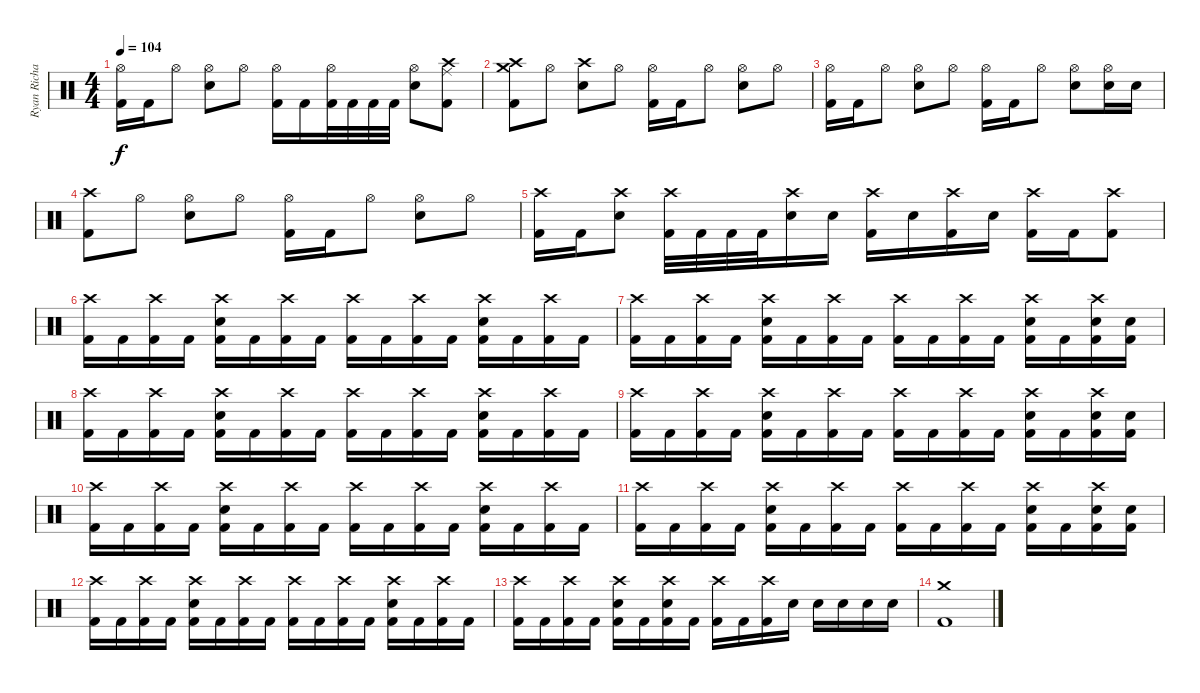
\track ("Ryan Richards" "Ryan Richa") {instrument percussion}
\staff {score}
\articulation defaults
\ts (4 4)
\tempo 104
\clef neutral
\ks c
("Hi-Hat (open)" "Kick (hit) 2").16{dy f} "Kick (hit) 2".16 "Hi-Hat (open)".8 ("Hi-Hat (open)" "Snare (hit) 2").8 "Hi-Hat (open)".8 ("Hi-Hat (open)" "Kick (hit) 2").16 "Kick (hit) 2".16 ("Hi-Hat (open)" "Kick (hit) 2").32 "Kick (hit) 2".32 "Kick (hit) 2".32 "Kick (hit) 2".32 ("Hi-Hat (open)" "Snare (hit) 2").8 ("Crash high (hit)" "Ride (middle)" "Kick (hit) 2").8 |
("Crash high (hit)" "Crash medium (hit)" "Kick (hit) 2").8 "Hi-Hat (open)".8 ("Crash high (hit)" "Snare (hit) 2").8 "Hi-Hat (open)".8 ("Hi-Hat (open)" "Kick (hit) 2").16 "Kick (hit) 2".16 "Hi-Hat (open)".8 ("Hi-Hat (open)" "Snare (hit) 2").8 "Hi-Hat (open)".8 |
("Hi-Hat (open)" "Kick (hit) 2").16 "Kick (hit) 2".16 "Hi-Hat (open)".8 ("Hi-Hat (open)" "Snare (hit) 2").8 "Hi-Hat (open)".8 ("Hi-Hat (open)" "Kick (hit) 2").16 "Kick (hit) 2".16 "Hi-Hat (open)".8 ("Hi-Hat (open)" "Snare (hit) 2").8 ("Hi-Hat (open)" "Snare (hit) 2").16 "Snare (hit) 2".16 |
("Crash high (hit)" "Kick (hit) 2").8 "Hi-Hat (open)".8 ("Hi-Hat (open)" "Snare (hit) 2").8 "Hi-Hat (open)".8 ("Hi-Hat (open)" "Kick (hit) 2").16 "Kick (hit) 2".16 "Hi-Hat (open)".8 ("Hi-Hat (open)" "Snare (hit) 2").8 "Hi-Hat (open)".8 |
("Crash high (hit)" "Kick (hit) 2").16 "Kick (hit) 2".16 ("Crash high (hit)" "Snare (hit) 2").8 ("Crash high (hit)" "Kick (hit) 2").32 "Kick (hit) 2".32 "Kick (hit) 2".32 "Kick (hit) 2".32 ("Crash high (hit)" "Snare (hit) 2").16 "Snare (hit) 2".16 ("Crash high (hit)" "Kick (hit) 2").16 "Snare (hit) 2".16 ("Crash high (hit)" "Kick (hit) 2").16 "Snare (hit) 2".16 ("Crash high (hit)" "Kick (hit) 2").16 "Kick (hit) 2".16 ("Crash high (hit)" "Kick (hit) 2").8 |
("Crash high (hit)" "Kick (hit) 2").16 "Kick (hit) 2".16 ("Crash high (hit)" "Kick (hit) 2").16 "Kick (hit) 2".16 ("Crash high (hit)" "Snare (hit) 2" "Kick (hit) 2").16 "Kick (hit) 2".16 ("Crash high (hit)" "Kick (hit) 2").16 "Kick (hit) 2".16 ("Crash high (hit)" "Kick (hit) 2").16 "Kick (hit) 2".16 ("Crash high (hit)" "Kick (hit) 2").16 "Kick (hit) 2".16 ("Crash high (hit)" "Snare (hit) 2" "Kick (hit) 2").16 "Kick (hit) 2".16 ("Crash high (hit)" "Kick (hit) 2").16 "Kick (hit) 2".16 |
("Crash high (hit)" "Kick (hit) 2").16 "Kick (hit) 2".16 ("Crash high (hit)" "Kick (hit) 2").16 "Kick (hit) 2".16 ("Crash high (hit)" "Snare (hit) 2" "Kick (hit) 2").16 "Kick (hit) 2".16 ("Crash high (hit)" "Kick (hit) 2").16 "Kick (hit) 2".16 ("Crash high (hit)" "Kick (hit) 2").16 "Kick (hit) 2".16 ("Crash high (hit)" "Kick (hit) 2").16 "Kick (hit) 2".16 ("Crash high (hit)" "Snare (hit) 2" "Kick (hit) 2").16 "Kick (hit) 2".16 ("Crash high (hit)" "Snare (hit) 2" "Kick (hit) 2").16 ("Snare (hit) 2" "Kick (hit) 2").16 |
("Crash high (hit)" "Kick (hit) 2").16 "Kick (hit) 2".16 ("Crash high (hit)" "Kick (hit) 2").16 "Kick (hit) 2".16 ("Crash high (hit)" "Snare (hit) 2" "Kick (hit) 2").16 "Kick (hit) 2".16 ("Crash high (hit)" "Kick (hit) 2").16 "Kick (hit) 2".16 ("Crash high (hit)" "Kick (hit) 2").16 "Kick (hit) 2".16 ("Crash high (hit)" "Kick (hit) 2").16 "Kick (hit) 2".16 ("Crash high (hit)" "Snare (hit) 2" "Kick (hit) 2").16 "Kick (hit) 2".16 ("Crash high (hit)" "Kick (hit) 2").16 "Kick (hit) 2".16 |
("Crash high (hit)" "Kick (hit) 2").16 "Kick (hit) 2".16 ("Crash high (hit)" "Kick (hit) 2").16 "Kick (hit) 2".16 ("Crash high (hit)" "Snare (hit) 2" "Kick (hit) 2").16 "Kick (hit) 2".16 ("Crash high (hit)" "Kick (hit) 2").16 "Kick (hit) 2".16 ("Crash high (hit)" "Kick (hit) 2").16 "Kick (hit) 2".16 ("Crash high (hit)" "Kick (hit) 2").16 "Kick (hit) 2".16 ("Crash high (hit)" "Snare (hit) 2" "Kick (hit) 2").16 "Kick (hit) 2".16 ("Crash high (hit)" "Snare (hit) 2" "Kick (hit) 2").16 ("Snare (hit) 2" "Kick (hit) 2").16 |
("Crash high (hit)" "Kick (hit) 2").16 "Kick (hit) 2".16 ("Crash high (hit)" "Kick (hit) 2").16 "Kick (hit) 2".16 ("Crash high (hit)" "Snare (hit) 2" "Kick (hit) 2").16 "Kick (hit) 2".16 ("Crash high (hit)" "Kick (hit) 2").16 "Kick (hit) 2".16 ("Crash high (hit)" "Kick (hit) 2").16 "Kick (hit) 2".16 ("Crash high (hit)" "Kick (hit) 2").16 "Kick (hit) 2".16 ("Crash high (hit)" "Snare (hit) 2" "Kick (hit) 2").16 "Kick (hit) 2".16 ("Crash high (hit)" "Kick (hit) 2").16 "Kick (hit) 2".16 |
("Crash high (hit)" "Kick (hit) 2").16 "Kick (hit) 2".16 ("Crash high (hit)" "Kick (hit) 2").16 "Kick (hit) 2".16 ("Crash high (hit)" "Snare (hit) 2" "Kick (hit) 2").16 "Kick (hit) 2".16 ("Crash high (hit)" "Kick (hit) 2").16 "Kick (hit) 2".16 ("Crash high (hit)" "Kick (hit) 2").16 "Kick (hit) 2".16 ("Crash high (hit)" "Kick (hit) 2").16 "Kick (hit) 2".16 ("Crash high (hit)" "Snare (hit) 2" "Kick (hit) 2").16 "Kick (hit) 2".16 ("Crash high (hit)" "Snare (hit) 2" "Kick (hit) 2").16 ("Snare (hit) 2" "Kick (hit) 2").16 |
("Crash high (hit)" "Kick (hit) 2").16 "Kick (hit) 2".16 ("Crash high (hit)" "Kick (hit) 2").16 "Kick (hit) 2".16 ("Crash high (hit)" "Snare (hit) 2" "Kick (hit) 2").16 "Kick (hit) 2".16 ("Crash high (hit)" "Kick (hit) 2").16 "Kick (hit) 2".16 ("Crash high (hit)" "Kick (hit) 2").16 "Kick (hit) 2".16 ("Crash high (hit)" "Kick (hit) 2").16 "Kick (hit) 2".16 ("Crash high (hit)" "Snare (hit) 2" "Kick (hit) 2").16 "Kick (hit) 2".16 ("Crash high (hit)" "Kick (hit) 2").16 "Kick (hit) 2".16 |
("Crash high (hit)" "Kick (hit) 2").16 "Kick (hit) 2".16 ("Crash high (hit)" "Kick (hit) 2").16 "Kick (hit) 2".16 ("Crash high (hit)" "Snare (hit) 2" "Kick (hit) 2").16 "Kick (hit) 2".16 ("Crash high (hit)" "Snare (hit) 2" "Kick (hit) 2").16 "Kick (hit) 2".16 ("Crash high (hit)" "Kick (hit) 2").16 "Kick (hit) 2".16 ("Crash high (hit)" "Kick (hit) 2").16 "Snare (hit) 2".16 "Snare (hit) 2".16 "Snare (hit) 2".16 "Snare (hit) 2".16 "Snare (hit) 2".16 |
("Crash medium (hit)" "Kick (hit) 2").1
